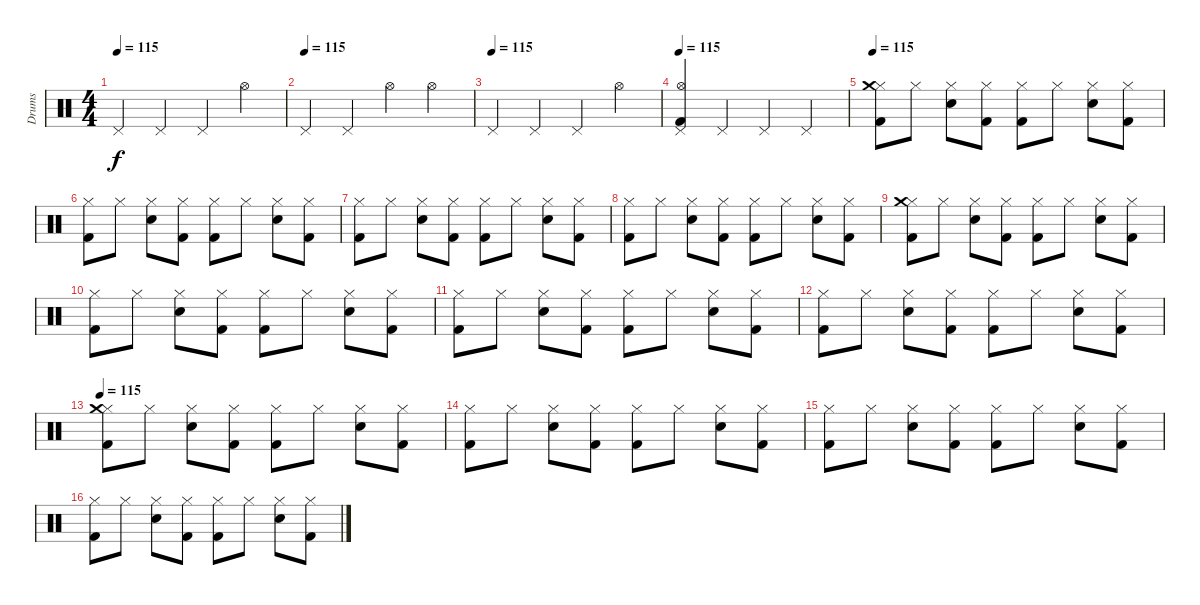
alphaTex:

\track ("Drums" "Drums") {instrument percussion}
\staff {score}
\articulation defaults
\ts (4 4)
\tempo 115
\clef neutral
\ks c "Pedal Hi-Hat (hit)".4{dy f} "Pedal Hi-Hat (hit)".4 "Pedal Hi-Hat (hit)".4 "Hi-Hat (open)".4
|
\tempo (115)
"Pedal Hi-Hat (hit)".4 "Pedal Hi-Hat (hit)".4 "Hi-Hat (open)".4 "Hi-Hat (open)".4 |
\tempo (115)
"Pedal Hi-Hat (hit)".4 "Pedal Hi-Hat (hit)".4 "Pedal Hi-Hat (hit)".4 "Hi-Hat (open)".4 |
\tempo 115
("Hi-Hat (open)" "Kick (hit) 2" "Pedal Hi-Hat (hit)").4 "Pedal Hi-Hat (hit)".4 "Pedal Hi-Hat (hit)".4 "Pedal Hi-Hat (hit)".4 |
\tempo 115
("Hi-Hat (closed)" "Crash medium (hit)" "Kick (hit) 2").8 "Hi-Hat (closed)".8 ("Hi-Hat (closed)" "Snare (hit) 2").8 ("Hi-Hat (closed)" "Kick (hit) 2").8 ("Hi-Hat (closed)" "Kick (hit) 2").8 "Hi-Hat (closed)".8 ("Hi-Hat (closed)" "Snare (hit) 2").8 ("Hi-Hat (closed)" "Kick (hit) 2").8 |
("Hi-Hat (closed)" "Kick (hit) 2").8 "Hi-Hat (closed)".8 ("Hi-Hat (closed)" "Snare (hit) 2").8 ("Hi-Hat (closed)" "Kick (hit) 2").8 ("Hi-Hat (closed)" "Kick (hit) 2").8 "Hi-Hat (closed)".8 ("Hi-Hat (closed)" "Snare (hit) 2").8 ("Hi-Hat (closed)" "Kick (hit) 2").8 |
("Hi-Hat (closed)" "Kick (hit) 2").8 "Hi-Hat (closed)".8 ("Hi-Hat (closed)" "Snare (hit) 2").8 ("Hi-Hat (closed)" "Kick (hit) 2").8 ("Hi-Hat (closed)" "Kick (hit) 2").8 "Hi-Hat (closed)".8 ("Hi-Hat (closed)" "Snare (hit) 2").8 ("Hi-Hat (closed)" "Kick (hit) 2").8 |
("Hi-Hat (closed)" "Kick (hit) 2").8 "Hi-Hat (closed)".8 ("Hi-Hat (closed)" "Snare (hit) 2").8 ("Hi-Hat (closed)" "Kick (hit) 2").8 ("Hi-Hat (closed)" "Kick (hit) 2").8 "Hi-Hat (closed)".8 ("Hi-Hat (closed)" "Snare (hit) 2").8 ("Hi-Hat (closed)" "Kick (hit) 2").8 |
("Hi-Hat (closed)" "Crash medium (hit)" "Kick (hit) 2").8 "Hi-Hat (closed)".8 ("Hi-Hat (closed)" "Snare (hit) 2").8 ("Hi-Hat (closed)" "Kick (hit) 2").8 ("Hi-Hat (closed)" "Kick (hit) 2").8 "Hi-Hat (closed)".8 ("Hi-Hat (closed)" "Snare (hit) 2").8 ("Hi-Hat (closed)" "Kick (hit) 2").8 |
("Hi-Hat (closed)" "Kick (hit) 2").8 "Hi-Hat (closed)".8 ("Hi-Hat (closed)" "Snare (hit) 2").8 ("Hi-Hat (closed)" "Kick (hit) 2").8 ("Hi-Hat (closed)" "Kick (hit) 2").8 "Hi-Hat (closed)".8 ("Hi-Hat (closed)" "Snare (hit) 2").8 ("Hi-Hat (closed)" "Kick (hit) 2").8 |
("Hi-Hat (closed)" "Kick (hit) 2").8 "Hi-Hat (closed)".8 ("Hi-Hat (closed)" "Snare (hit) 2").8 ("Hi-Hat (closed)" "Kick (hit) 2").8 ("Hi-Hat (closed)" "Kick (hit) 2").8 "Hi-Hat (closed)".8 ("Hi-Hat (closed)" "Snare (hit) 2").8 ("Hi-Hat (closed)" "Kick (hit) 2").8 |
("Hi-Hat (closed)" "Kick (hit) 2").8 "Hi-Hat (closed)".8 ("Hi-Hat (closed)" "Snare (hit) 2").8 ("Hi-Hat (closed)" "Kick (hit) 2").8 ("Hi-Hat (closed)" "Kick (hit) 2").8 "Hi-Hat (closed)".8 ("Hi-Hat (closed)" "Snare (hit) 2").8 ("Hi-Hat (closed)" "Kick (hit) 2").8 |
\tempo 115
("Hi-Hat (closed)" "Crash medium (hit)" "Kick (hit) 2").8 "Hi-Hat (closed)".8 ("Hi-Hat (closed)" "Snare (hit) 2").8 ("Hi-Hat (closed)" "Kick (hit) 2").8 ("Hi-Hat (closed)" "Kick (hit) 2").8 "Hi-Hat (closed)".8 ("Hi-Hat (closed)" "Snare (hit) 2").8 ("Hi-Hat (closed)" "Kick (hit) 2").8 |
("Hi-Hat (closed)" "Kick (hit) 2").8 "Hi-Hat (closed)".8 ("Hi-Hat (closed)" "Snare (hit) 2").8 ("Hi-Hat (closed)" "Kick (hit) 2").8 ("Hi-Hat (closed)" "Kick (hit) 2").8 "Hi-Hat (closed)".8 ("Hi-Hat (closed)" "Snare (hit) 2").8 ("Hi-Hat (closed)" "Kick (hit) 2").8 |
("Hi-Hat (closed)" "Kick (hit) 2").8 "Hi-Hat (closed)".8 ("Hi-Hat (closed)" "Snare (hit) 2").8 ("Hi-Hat (closed)" "Kick (hit) 2").8 ("Hi-Hat (closed)" "Kick (hit) 2").8 "Hi-Hat (closed)".8 ("Hi-Hat (closed)" "Snare (hit) 2").8 ("Hi-Hat (closed)" "Kick (hit) 2").8 |
("Hi-Hat (closed)" "Kick (hit) 2").8 "Hi-Hat (closed)".8 ("Hi-Hat (closed)" "Snare (hit) 2").8 ("Hi-Hat (closed)" "Kick (hit) 2").8 ("Hi-Hat (closed)" "Kick (hit) 2").8 "Hi-Hat (closed)".8 ("Hi-Hat (closed)" "Snare (hit) 2").8 ("Hi-Hat (closed)" "Kick (hit) 2").8
